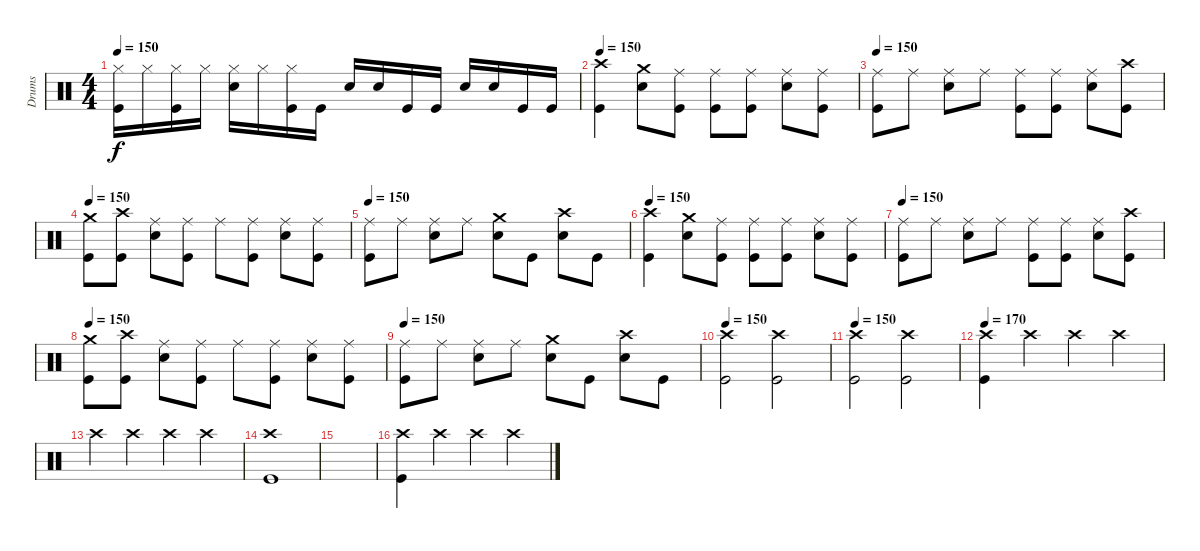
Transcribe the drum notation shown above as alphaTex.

\track ("Drums" "Drums") {instrument percussion}
\staff {score}
\articulation defaults
\ts (4 4)
\tempo 150
\clef neutral
\ks c
("Hi-Hat (closed)" "Kick (hit)").16{dy f} "Hi-Hat (closed)".16 ("Hi-Hat (closed)" "Kick (hit)").16 "Hi-Hat (closed)".16 ("Hi-Hat (closed)" "Snare (hit) 2").16 "Hi-Hat (closed)".16 ("Hi-Hat (closed)" "Kick (hit)").16 "Kick (hit)".16 "Snare (hit) 2".16 "Snare (hit) 2".16 "Kick (hit)".16 "Kick (hit)".16 "Snare (hit) 2".16 "Snare (hit) 2".16 "Kick (hit)".16 "Kick (hit)".16 |
\tempo 150
("Crash high (hit)" "Kick (hit)").4 ("Crash medium (hit)" "Snare (hit) 2").8 ("Ride (middle)" "Kick (hit)").8 ("Ride (middle)" "Kick (hit)").8 ("Ride (middle)" "Kick (hit)").8 ("Ride (middle)" "Snare (hit) 2").8 ("Ride (middle)" "Kick (hit)").8 |
\tempo 150
("Ride (middle)" "Kick (hit)").8 "Ride (middle)".8 ("Ride (middle)" "Snare (hit) 2").8 "Ride (middle)".8 ("Ride (middle)" "Kick (hit)").8 ("Ride (middle)" "Kick (hit)").8 ("Ride (middle)" "Snare (hit) 2").8 ("Crash high (hit)" "Kick (hit)").8 |
\tempo 150
("Crash medium (hit)" "Kick (hit)").8 ("Crash high (hit)" "Kick (hit)").8 ("Ride (middle)" "Snare (hit) 2").8 ("Ride (middle)" "Kick (hit)").8 "Ride (middle)".8 ("Ride (middle)" "Kick (hit)").8 ("Ride (middle)" "Snare (hit) 2").8 ("Ride (middle)" "Kick (hit)").8 |
\tempo 150
("Ride (middle)" "Kick (hit)").8 "Ride (middle)".8 ("Ride (middle)" "Snare (hit) 2").8 "Ride (middle)".8 ("Crash medium (hit)" "Snare (hit) 2").8 "Kick (hit)".8 ("Crash high (hit)" "Snare (hit) 2").8 "Kick (hit)".8 |
\tempo 150
("Crash high (hit)" "Kick (hit)").4 ("Crash medium (hit)" "Snare (hit) 2").8 ("Ride (middle)" "Kick (hit)").8 ("Ride (middle)" "Kick (hit)").8 ("Ride (middle)" "Kick (hit)").8 ("Ride (middle)" "Snare (hit) 2").8 ("Ride (middle)" "Kick (hit)").8 |
\tempo 150
("Ride (middle)" "Kick (hit)").8 "Ride (middle)".8 ("Ride (middle)" "Snare (hit) 2").8 "Ride (middle)".8 ("Ride (middle)" "Kick (hit)").8 ("Ride (middle)" "Kick (hit)").8 ("Ride (middle)" "Snare (hit) 2").8 ("Crash high (hit)" "Kick (hit)").8 |
\tempo 150
("Crash medium (hit)" "Kick (hit)").8 ("Crash high (hit)" "Kick (hit)").8 ("Ride (middle)" "Snare (hit) 2").8 ("Ride (middle)" "Kick (hit)").8 "Ride (middle)".8 ("Ride (middle)" "Kick (hit)").8 ("Ride (middle)" "Snare (hit) 2").8 ("Ride (middle)" "Kick (hit)").8 |
\tempo 150
("Ride (middle)" "Kick (hit)").8 "Ride (middle)".8 ("Ride (middle)" "Snare (hit) 2").8 "Ride (middle)".8 ("Crash medium (hit)" "Snare (hit) 2").8 "Kick (hit)".8 ("Crash high (hit)" "Snare (hit) 2").8 "Kick (hit)".8 |
\tempo 150
("Crash high (hit)" "Kick (hit)").2 ("Crash high (hit)" "Kick (hit)").2 |
\tempo 150
("Crash high (hit)" "Kick (hit)").2 ("Crash high (hit)" "Kick (hit)").2 |
\tempo 170
("Crash high (hit)" "Kick (hit)").4 "Crash high (hit)".4{volume 8} "Crash high (hit)".4 "Crash high (hit)".4 |
"Crash high (hit)".4 "Crash high (hit)".4 "Crash high (hit)".4 "Crash high (hit)".4 |
("Crash high (hit)" "Kick (hit)").1 |
|
("Crash high (hit)" "Kick (hit)").4 "Crash high (hit)".4{volume 8} "Crash high (hit)".4 "Crash high (hit)".4
